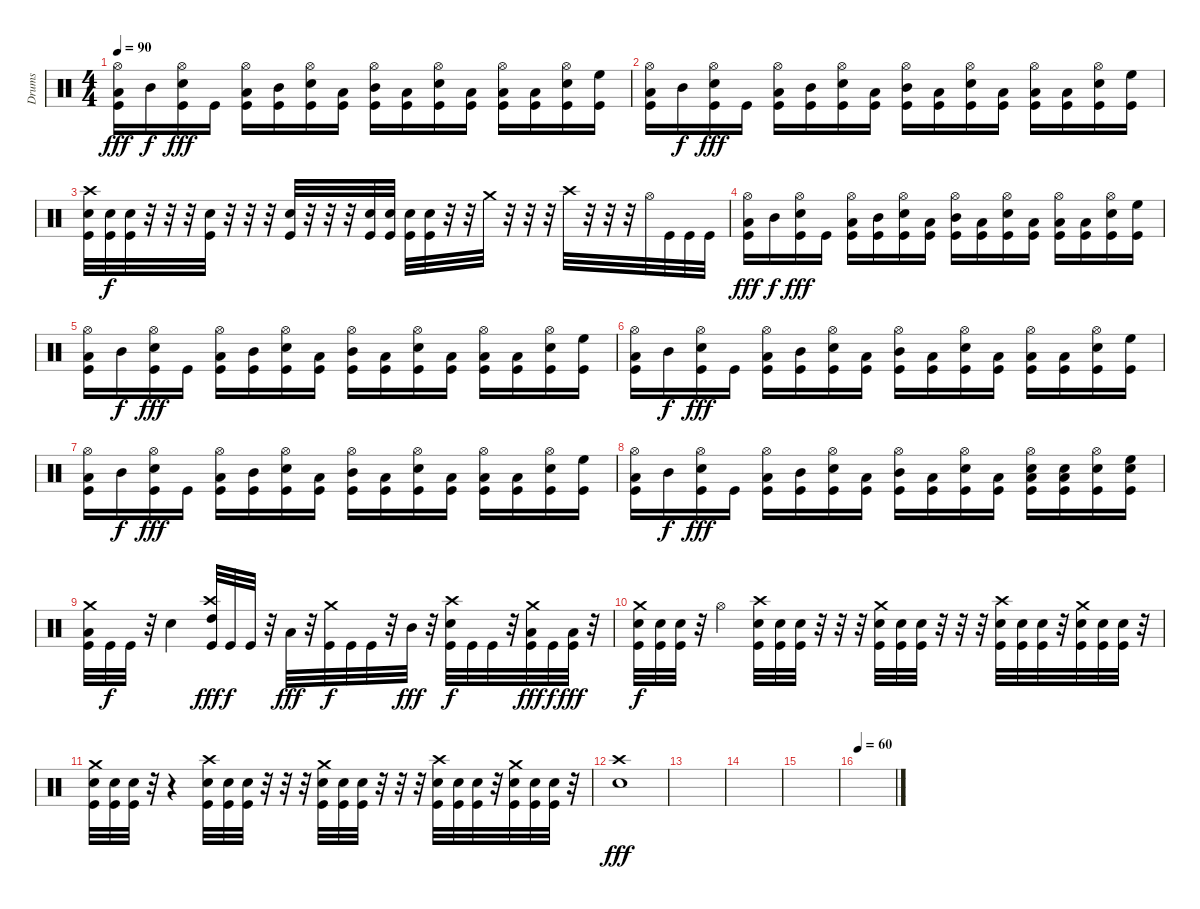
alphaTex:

\track ("Drums" "Drums") {instrument percussion}
\staff {score}
\articulation defaults
\ts (4 4)
\tempo 90
\clef neutral
\ks c
("Hi-Hat (open)" "Low Tom (hit)" "Kick (hit)").16{dy fff} "Mid Tom (hit)".16{dy f} ("Hi-Hat (open)" "Snare (hit) 2" "Kick (hit)").16{dy fff} "Kick (hit)".16 ("Hi-Hat (open)" "Low Tom (hit)" "Kick (hit)").16 ("Mid Tom (hit)" "Kick (hit)").16 ("Hi-Hat (open)" "Snare (hit) 2" "Kick (hit)").16 ("Low Tom (hit)" "Kick (hit)").16 ("Hi-Hat (open)" "Mid Tom (hit)" "Kick (hit)").16 ("Low Tom (hit)" "Kick (hit)").16 ("Hi-Hat (open)" "Snare (hit) 2" "Kick (hit)").16 ("Low Tom (hit)" "Kick (hit)").16 ("Hi-Hat (open)" "Low Tom (hit)" "Kick (hit)").16 ("Low Tom (hit)" "Kick (hit)").16 ("Hi-Hat (open)" "Snare (hit) 2" "Kick (hit)").16 ("High Floor Tom (hit)" "Kick (hit)").16 |
("Hi-Hat (open)" "Low Tom (hit)" "Kick (hit)").16 "Mid Tom (hit)".16{dy f} ("Hi-Hat (open)" "Snare (hit) 2" "Kick (hit)").16{dy fff} "Kick (hit)".16 ("Hi-Hat (open)" "Low Tom (hit)" "Kick (hit)").16 ("Mid Tom (hit)" "Kick (hit)").16 ("Hi-Hat (open)" "Snare (hit) 2" "Kick (hit)").16 ("Low Tom (hit)" "Kick (hit)").16 ("Hi-Hat (open)" "Mid Tom (hit)" "Kick (hit)").16 ("Low Tom (hit)" "Kick (hit)").16 ("Hi-Hat (open)" "Snare (hit) 2" "Kick (hit)").16 ("Low Tom (hit)" "Kick (hit)").16 ("Hi-Hat (open)" "Low Tom (hit)" "Kick (hit)").16 ("Low Tom (hit)" "Kick (hit)").16 ("Hi-Hat (open)" "Snare (hit) 2" "Kick (hit)").16 ("High Floor Tom (hit)" "Kick (hit)").16 |
("Crash high (hit)" "Snare (hit) 2" "Kick (hit)").32 ("Snare (hit) 2" "Kick (hit)").32{dy f} ("Snare (hit) 2" "Kick (hit)").32 r.32 r.32 r.32 ("Snare (hit) 2" "Kick (hit)").32 r.32 r.32 r.32 ("Snare (hit) 2" "Kick (hit)").32 r.32 r.32 r.32 ("Snare (hit) 2" "Kick (hit)").32 ("Snare (hit) 2" "Kick (hit)").32 ("Snare (hit) 2" "Kick (hit)").32 ("Snare (hit) 2" "Kick (hit)").32 r.32 r.32 "Crash medium (hit)".32 r.32 r.32 r.32 "Crash high (hit)".32 r.32 r.32 r.32 "Hi-Hat (open)".32 "Kick (hit)".32 "Kick (hit)".32 "Kick (hit)".32 |
("Hi-Hat (open)" "Low Tom (hit)" "Kick (hit)").16{dy fff} "Mid Tom (hit)".16{dy f} ("Hi-Hat (open)" "Snare (hit) 2" "Kick (hit)").16{dy fff} "Kick (hit)".16 ("Hi-Hat (open)" "Low Tom (hit)" "Kick (hit)").16 ("Mid Tom (hit)" "Kick (hit)").16 ("Hi-Hat (open)" "Snare (hit) 2" "Kick (hit)").16 ("Low Tom (hit)" "Kick (hit)").16 ("Hi-Hat (open)" "Mid Tom (hit)" "Kick (hit)").16 ("Low Tom (hit)" "Kick (hit)").16 ("Hi-Hat (open)" "Snare (hit) 2" "Kick (hit)").16 ("Low Tom (hit)" "Kick (hit)").16 ("Hi-Hat (open)" "Low Tom (hit)" "Kick (hit)").16 ("Low Tom (hit)" "Kick (hit)").16 ("Hi-Hat (open)" "Snare (hit) 2" "Kick (hit)").16 ("High Floor Tom (hit)" "Kick (hit)").16 |
("Hi-Hat (open)" "Low Tom (hit)" "Kick (hit)").16 "Mid Tom (hit)".16{dy f} ("Hi-Hat (open)" "Snare (hit) 2" "Kick (hit)").16{dy fff} "Kick (hit)".16 ("Hi-Hat (open)" "Low Tom (hit)" "Kick (hit)").16 ("Mid Tom (hit)" "Kick (hit)").16 ("Hi-Hat (open)" "Snare (hit) 2" "Kick (hit)").16 ("Low Tom (hit)" "Kick (hit)").16 ("Hi-Hat (open)" "Mid Tom (hit)" "Kick (hit)").16 ("Low Tom (hit)" "Kick (hit)").16 ("Hi-Hat (open)" "Snare (hit) 2" "Kick (hit)").16 ("Low Tom (hit)" "Kick (hit)").16 ("Hi-Hat (open)" "Low Tom (hit)" "Kick (hit)").16 ("Low Tom (hit)" "Kick (hit)").16 ("Hi-Hat (open)" "Snare (hit) 2" "Kick (hit)").16 ("High Floor Tom (hit)" "Kick (hit)").16 |
("Hi-Hat (open)" "Low Tom (hit)" "Kick (hit)").16 "Mid Tom (hit)".16{dy f} ("Hi-Hat (open)" "Snare (hit) 2" "Kick (hit)").16{dy fff} "Kick (hit)".16 ("Hi-Hat (open)" "Low Tom (hit)" "Kick (hit)").16 ("Mid Tom (hit)" "Kick (hit)").16 ("Hi-Hat (open)" "Snare (hit) 2" "Kick (hit)").16 ("Low Tom (hit)" "Kick (hit)").16 ("Hi-Hat (open)" "Mid Tom (hit)" "Kick (hit)").16 ("Low Tom (hit)" "Kick (hit)").16 ("Hi-Hat (open)" "Snare (hit) 2" "Kick (hit)").16 ("Low Tom (hit)" "Kick (hit)").16 ("Hi-Hat (open)" "Low Tom (hit)" "Kick (hit)").16 ("Low Tom (hit)" "Kick (hit)").16 ("Hi-Hat (open)" "Snare (hit) 2" "Kick (hit)").16 ("High Floor Tom (hit)" "Kick (hit)").16 |
("Hi-Hat (open)" "Low Tom (hit)" "Kick (hit)").16 "Mid Tom (hit)".16{dy f} ("Hi-Hat (open)" "Snare (hit) 2" "Kick (hit)").16{dy fff} "Kick (hit)".16 ("Hi-Hat (open)" "Low Tom (hit)" "Kick (hit)").16 ("Mid Tom (hit)" "Kick (hit)").16 ("Hi-Hat (open)" "Snare (hit) 2" "Kick (hit)").16 ("Low Tom (hit)" "Kick (hit)").16 ("Hi-Hat (open)" "Mid Tom (hit)" "Kick (hit)").16 ("Low Tom (hit)" "Kick (hit)").16 ("Hi-Hat (open)" "Snare (hit) 2" "Kick (hit)").16 ("Low Tom (hit)" "Kick (hit)").16 ("Hi-Hat (open)" "Low Tom (hit)" "Kick (hit)").16 ("Low Tom (hit)" "Kick (hit)").16 ("Hi-Hat (open)" "Snare (hit) 2" "Kick (hit)").16 ("High Floor Tom (hit)" "Kick (hit)").16 |
("Hi-Hat (open)" "Low Tom (hit)" "Kick (hit)").16 "Mid Tom (hit)".16{dy f} ("Hi-Hat (open)" "Snare (hit) 2" "Kick (hit)").16{dy fff} "Kick (hit)".16 ("Hi-Hat (open)" "Low Tom (hit)" "Kick (hit)").16 ("Mid Tom (hit)" "Kick (hit)").16 ("Hi-Hat (open)" "Snare (hit) 2" "Kick (hit)").16 ("Low Tom (hit)" "Kick (hit)").16 ("Hi-Hat (open)" "Mid Tom (hit)" "Kick (hit)").16 ("Low Tom (hit)" "Kick (hit)").16 ("Hi-Hat (open)" "Snare (hit) 2" "Kick (hit)").16 ("Low Tom (hit)" "Kick (hit)").16 ("Hi-Hat (open)" "Low Tom (hit)" "Snare (hit) 2" "Kick (hit)").16 ("Low Tom (hit)" "Snare (hit) 2" "Kick (hit)").16 ("Hi-Hat (open)" "Snare (hit) 2" "Kick (hit)").16 ("High Floor Tom (hit)" "Snare (hit) 2" "Kick (hit)").16 |
("Crash medium (hit)" "Low Tom (hit)" "Kick (hit)").32 "Kick (hit)".32{dy f} "Kick (hit)".32 r.32 "Snare (hit) 2".4 ("Crash high (hit)" "High Tom (hit)" "Kick (hit)").32{dy fff} "Kick (hit)".32{dy f} "Kick (hit)".32 r.32 "Low Tom (hit)".32{dy fff} r.32 ("Crash medium (hit)" "Kick (hit)").32{dy f} "Kick (hit)".32 "Kick (hit)".32 r.32 "Mid Tom (hit)".32{dy fff} r.32 ("Crash high (hit)" "Snare (hit) 2" "Kick (hit)").32{dy f} "Kick (hit)".32 "Kick (hit)".32 r.32 ("Crash medium (hit)" "Low Tom (hit)" "Kick (hit)").32{dy fff} "Kick (hit)".32{dy f} ("Low Tom (hit)" "Kick (hit)").32{dy fff} r.32 |
("Crash medium (hit)" "Snare (hit) 2" "Kick (hit)").32{dy f} ("Snare (hit) 2" "Kick (hit)").32 ("Snare (hit) 2" "Kick (hit)").32 r.32 "Hi-Hat (open)".4 ("Crash high (hit)" "Snare (hit) 2" "Kick (hit)").32 ("Snare (hit) 2" "Kick (hit)").32 ("Snare (hit) 2" "Kick (hit)").32 r.32 r.32 r.32 ("Crash medium (hit)" "Snare (hit) 2" "Kick (hit)").32 ("Snare (hit) 2" "Kick (hit)").32 ("Snare (hit) 2" "Kick (hit)").32 r.32 r.32 r.32 ("Crash high (hit)" "Snare (hit) 2" "Kick (hit)").32 ("Snare (hit) 2" "Kick (hit)").32 ("Snare (hit) 2" "Kick (hit)").32 r.32 ("Crash medium (hit)" "Snare (hit) 2" "Kick (hit)").32 ("Snare (hit) 2" "Kick (hit)").32 ("Snare (hit) 2" "Kick (hit)").32 r.32 |
("Crash medium (hit)" "Snare (hit) 2" "Kick (hit)").32 ("Snare (hit) 2" "Kick (hit)").32 ("Snare (hit) 2" "Kick (hit)").32 r.32 r.4 ("Crash high (hit)" "Snare (hit) 2" "Kick (hit)").32 ("Snare (hit) 2" "Kick (hit)").32 ("Snare (hit) 2" "Kick (hit)").32 r.32 r.32 r.32 ("Crash medium (hit)" "Snare (hit) 2" "Kick (hit)").32 ("Snare (hit) 2" "Kick (hit)").32 ("Snare (hit) 2" "Kick (hit)").32 r.32 r.32 r.32 ("Crash high (hit)" "Snare (hit) 2" "Kick (hit)").32 ("Snare (hit) 2" "Kick (hit)").32 ("Snare (hit) 2" "Kick (hit)").32 r.32 ("Crash medium (hit)" "Snare (hit) 2" "Kick (hit)").32 ("Snare (hit) 2" "Kick (hit)").32 ("Snare (hit) 2" "Kick (hit)").32 r.32 |
("Crash high (hit)" "Snare (hit) 2").1{dy fff} |
|
|
|
\tempo 60
